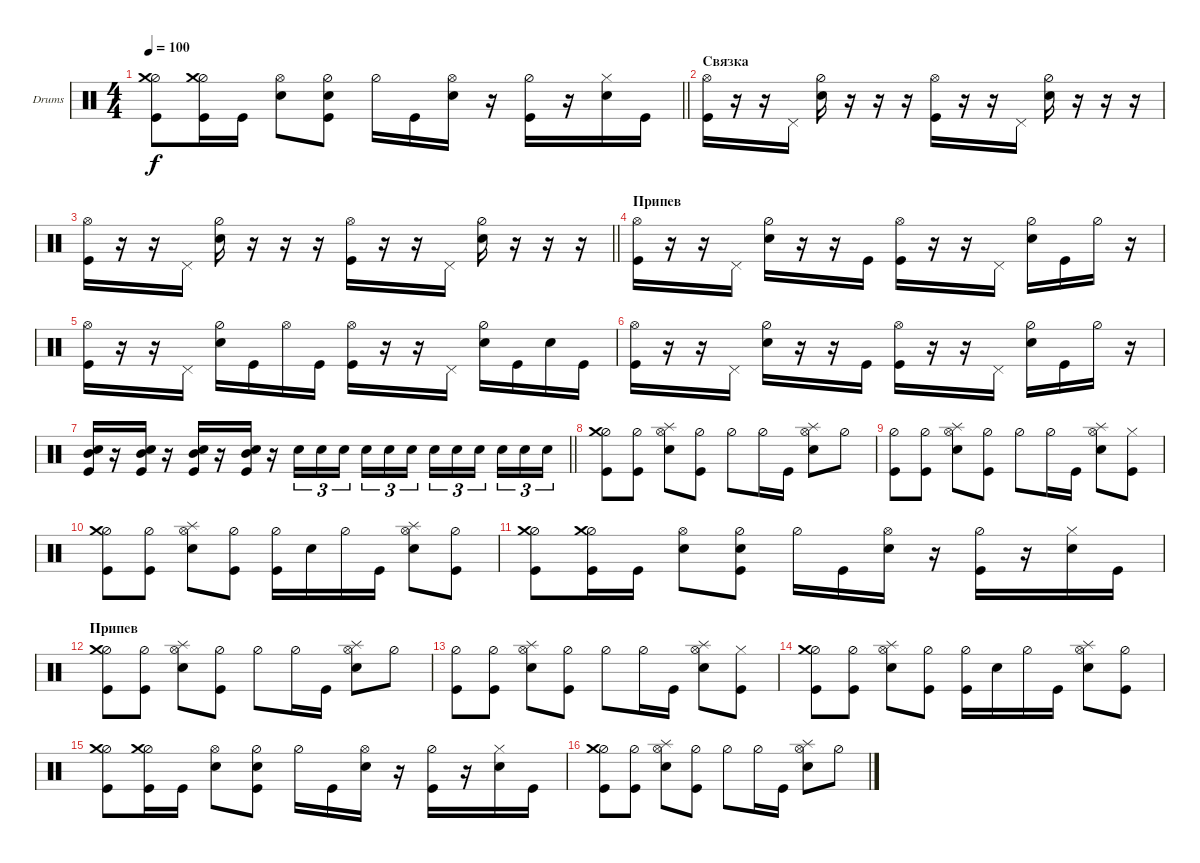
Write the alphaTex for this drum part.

\bracketExtendMode groupsimilarinstruments
\firstSystemTrackNameOrientation horizontal
\otherSystemsTrackNameOrientation horizontal
\track ("Drumkit" "Drums") {instrument percussion}
\staff {score}
\articulation defaults
\ts (4 4)
\tempo 100
\clef neutral
\barLineRight lightlight
\ks c
("Hi-Hat (half)" "Kick (hit)" "Crash medium (hit)").8{dy f} ("Kick (hit)" "Hi-Hat (half)" "Crash medium (hit)").16 "Kick (hit)".16 ("Hi-Hat (open)" "Snare (hit) 2").8 ("Kick (hit)" "Hi-Hat (half)" "Snare (hit) 2").8 "Hi-Hat (half)".16 "Kick (hit)".16 ("Snare (hit) 2" "Hi-Hat (open)").16 r.16 ("Kick (hit)" "Hi-Hat (half)").16 r.16 ("Snare (hit) 2" "Hi-Hat (closed)").16 "Kick (hit)".16 |
\section ("" "Связка")
("Kick (hit)" "Hi-Hat (open)").16 r.16 r.16 "Pedal Hi-Hat (hit)".16 ("Snare (hit) 2" "Hi-Hat (half)").16 r.16 r.16 r.16 ("Kick (hit)" "Hi-Hat (open)").16 r.16 r.16 "Pedal Hi-Hat (hit)".16 ("Snare (hit) 2" "Hi-Hat (half)").16 r.16 r.16 r.16 |
\barLineRight lightlight
("Kick (hit)" "Hi-Hat (open)").16 r.16 r.16 "Pedal Hi-Hat (hit)".16 ("Snare (hit) 2" "Hi-Hat (half)").16 r.16 r.16 r.16 ("Kick (hit)" "Hi-Hat (open)").16 r.16 r.16 "Pedal Hi-Hat (hit)".16 ("Snare (hit) 2" "Hi-Hat (half)").16 r.16 r.16 r.16 |
\section ("" "Припев")
("Kick (hit)" "Hi-Hat (open)").16 r.16 r.16 "Pedal Hi-Hat (hit)".16 ("Snare (hit) 2" "Hi-Hat (half)").16 r.16 r.16 "Kick (hit)".16 ("Kick (hit)" "Hi-Hat (open)").16 r.16 r.16 "Pedal Hi-Hat (hit)".16 ("Snare (hit) 2" "Hi-Hat (half)").16 "Kick (hit)".16 "Hi-Hat (half)".16 r.16 |
("Kick (hit)" "Hi-Hat (open)").16 r.16 r.16 "Pedal Hi-Hat (hit)".16 ("Snare (hit) 2" "Hi-Hat (half)").16 "Kick (hit)".16 "Hi-Hat (open)".16 "Kick (hit)".16 ("Kick (hit)" "Hi-Hat (open)").16 r.16 r.16 "Pedal Hi-Hat (hit)".16 ("Snare (hit) 2" "Hi-Hat (half)").16 "Kick (hit)".16 "Snare (hit) 2".16 "Kick (hit)".16 |
("Kick (hit)" "Hi-Hat (open)").16 r.16 r.16 "Pedal Hi-Hat (hit)".16 ("Snare (hit) 2" "Hi-Hat (half)").16 r.16 r.16 "Kick (hit)".16 ("Kick (hit)" "Hi-Hat (open)").16 r.16 r.16 "Pedal Hi-Hat (hit)".16 ("Snare (hit) 2" "Hi-Hat (half)").16 "Kick (hit)".16 "Hi-Hat (half)".16 r.16 |
\barLineRight lightlight
("Kick (hit)" "Snare (hit) 2" "Mid Tom (hit)").16 r.16 ("Kick (hit)" "Snare (hit) 2" "Mid Tom (hit)").16 r.16 ("Snare (hit) 2" "Kick (hit)" "Mid Tom (hit)").16 r.16 ("Kick (hit)" "Snare (hit) 2" "Mid Tom (hit)").16 r.16 "Snare (hit) 2".16{tu (3 2)} "Snare (hit) 2".16{tu (3 2)} "Snare (hit) 2".16{tu (3 2)} "Snare (hit) 2".16{tu (3 2)} "Snare (hit) 2".16{tu (3 2)} "Snare (hit) 2".16{tu (3 2)} "Snare (hit) 2".16{tu (3 2)} "Snare (hit) 2".16{tu (3 2)} "Snare (hit) 2".16{tu (3 2)} "Snare (hit) 2".16{tu (3 2)} "Snare (hit) 2".16{tu (3 2)} "Snare (hit) 2".16{tu (3 2)} |
("Hi-Hat (half)" "Kick (hit)" "Crash medium (hit)").8 ("Kick (hit)" "Hi-Hat (half)").8 ("Hi-Hat (open)" "Snare (hit) 2" "Splash (hit)").8 ("Kick (hit)" "Hi-Hat (half)").8 "Hi-Hat (half)".8 "Hi-Hat (half)".16 "Kick (hit)".16 ("Hi-Hat (open)" "Snare (hit) 2" "Splash (hit)").8 "Hi-Hat (half)".8 |
("Hi-Hat (half)" "Kick (hit)").8 ("Kick (hit)" "Hi-Hat (half)").8 ("Hi-Hat (open)" "Snare (hit) 2" "Splash (hit)").8 ("Kick (hit)" "Hi-Hat (half)").8 "Hi-Hat (half)".8 "Hi-Hat (half)".16 "Kick (hit)".16 ("Hi-Hat (open)" "Snare (hit) 2" "Splash (hit)").8 ("Kick (hit)" "Hi-Hat (closed)").8 |
("Hi-Hat (half)" "Kick (hit)" "Crash medium (hit)").8 ("Kick (hit)" "Hi-Hat (half)").8 ("Hi-Hat (open)" "Snare (hit) 2" "Splash (hit)").8 ("Kick (hit)" "Hi-Hat (half)").8 ("Hi-Hat (half)" "Kick (hit)").16 "Snare (hit) 2".16 "Hi-Hat (half)".16 "Kick (hit)".16 ("Hi-Hat (open)" "Snare (hit) 2" "Splash (hit)").8 ("Kick (hit)" "Hi-Hat (half)").8 |
("Hi-Hat (half)" "Kick (hit)" "Crash medium (hit)").8 ("Kick (hit)" "Hi-Hat (half)" "Crash medium (hit)").16 "Kick (hit)".16 ("Hi-Hat (open)" "Snare (hit) 2").8 ("Kick (hit)" "Hi-Hat (half)" "Snare (hit) 2").8 "Hi-Hat (half)".16 "Kick (hit)".16 ("Snare (hit) 2" "Hi-Hat (open)").16 r.16 ("Kick (hit)" "Hi-Hat (half)").16 r.16 ("Snare (hit) 2" "Hi-Hat (closed)").16 "Kick (hit)".16 |
\section ("" "Припев")
("Hi-Hat (half)" "Kick (hit)" "Crash medium (hit)").8 ("Kick (hit)" "Hi-Hat (half)").8 ("Hi-Hat (open)" "Snare (hit) 2" "Splash (hit)").8 ("Kick (hit)" "Hi-Hat (half)").8 "Hi-Hat (half)".8 "Hi-Hat (half)".16 "Kick (hit)".16 ("Hi-Hat (open)" "Snare (hit) 2" "Splash (hit)").8 "Hi-Hat (half)".8 |
("Hi-Hat (half)" "Kick (hit)").8 ("Kick (hit)" "Hi-Hat (half)").8 ("Hi-Hat (open)" "Snare (hit) 2" "Splash (hit)").8 ("Kick (hit)" "Hi-Hat (half)").8 "Hi-Hat (half)".8 "Hi-Hat (half)".16 "Kick (hit)".16 ("Hi-Hat (open)" "Snare (hit) 2" "Splash (hit)").8 ("Kick (hit)" "Hi-Hat (closed)").8 |
("Hi-Hat (half)" "Kick (hit)" "Crash medium (hit)").8 ("Kick (hit)" "Hi-Hat (half)").8 ("Hi-Hat (open)" "Snare (hit) 2" "Splash (hit)").8 ("Kick (hit)" "Hi-Hat (half)").8 ("Hi-Hat (half)" "Kick (hit)").16 "Snare (hit) 2".16 "Hi-Hat (half)".16 "Kick (hit)".16 ("Hi-Hat (open)" "Snare (hit) 2" "Splash (hit)").8 ("Kick (hit)" "Hi-Hat (half)").8 |
("Hi-Hat (half)" "Kick (hit)" "Crash medium (hit)").8 ("Kick (hit)" "Hi-Hat (half)" "Crash medium (hit)").16 "Kick (hit)".16 ("Hi-Hat (open)" "Snare (hit) 2").8 ("Kick (hit)" "Hi-Hat (half)" "Snare (hit) 2").8 "Hi-Hat (half)".16 "Kick (hit)".16 ("Snare (hit) 2" "Hi-Hat (open)").16 r.16 ("Kick (hit)" "Hi-Hat (half)").16 r.16 ("Snare (hit) 2" "Hi-Hat (closed)").16 "Kick (hit)".16 |
("Hi-Hat (half)" "Kick (hit)" "Crash medium (hit)").8 ("Kick (hit)" "Hi-Hat (half)").8 ("Hi-Hat (open)" "Snare (hit) 2" "Splash (hit)").8 ("Kick (hit)" "Hi-Hat (half)").8 "Hi-Hat (half)".8 "Hi-Hat (half)".16 "Kick (hit)".16 ("Hi-Hat (open)" "Snare (hit) 2" "Splash (hit)").8 "Hi-Hat (half)".8
